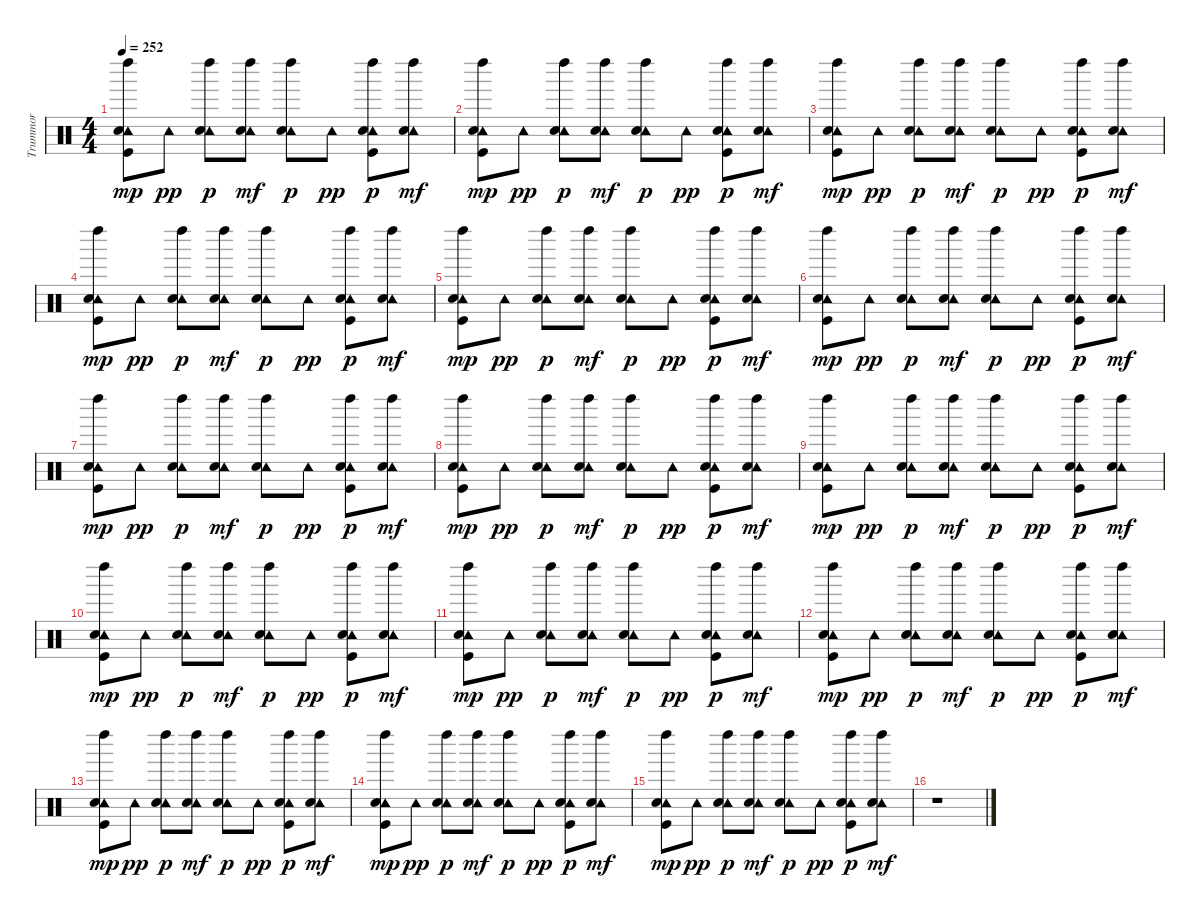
\track ("Trummor" "Trummor") {instrument percussion}
\staff {score}
\articulation defaults
\ts (4 4)
\tempo 252
\clef neutral
\ks c
("Left Maraca (hit)" "Tambourine (hit)" "Snare (hit) 2" "Kick (hit)").8{dy mp} "Tambourine (hit)".8{dy pp} ("Left Maraca (hit)" "Tambourine (hit)" "Snare (hit) 2").8{dy p} ("Left Maraca (hit)" "Tambourine (hit)" "Snare (hit) 2").8{dy mf} ("Left Maraca (hit)" "Tambourine (hit)" "Snare (hit) 2").8{dy p} "Tambourine (hit)".8{dy pp} ("Left Maraca (hit)" "Tambourine (hit)" "Snare (hit) 2" "Kick (hit)").8{dy p} ("Left Maraca (hit)" "Tambourine (hit)" "Snare (hit) 2").8{dy mf} |
("Left Maraca (hit)" "Tambourine (hit)" "Snare (hit) 2" "Kick (hit)").8{dy mp volume 7} "Tambourine (hit)".8{dy pp} ("Left Maraca (hit)" "Tambourine (hit)" "Snare (hit) 2").8{dy p} ("Left Maraca (hit)" "Tambourine (hit)" "Snare (hit) 2").8{dy mf} ("Left Maraca (hit)" "Tambourine (hit)" "Snare (hit) 2").8{dy p} "Tambourine (hit)".8{dy pp} ("Left Maraca (hit)" "Tambourine (hit)" "Snare (hit) 2" "Kick (hit)").8{dy p} ("Left Maraca (hit)" "Tambourine (hit)" "Snare (hit) 2").8{dy mf} |
("Left Maraca (hit)" "Tambourine (hit)" "Snare (hit) 2" "Kick (hit)").8{dy mp} "Tambourine (hit)".8{dy pp} ("Left Maraca (hit)" "Tambourine (hit)" "Snare (hit) 2").8{dy p} ("Left Maraca (hit)" "Tambourine (hit)" "Snare (hit) 2").8{dy mf} ("Left Maraca (hit)" "Tambourine (hit)" "Snare (hit) 2").8{dy p} "Tambourine (hit)".8{dy pp} ("Left Maraca (hit)" "Tambourine (hit)" "Snare (hit) 2" "Kick (hit)").8{dy p} ("Left Maraca (hit)" "Tambourine (hit)" "Snare (hit) 2").8{dy mf} |
("Left Maraca (hit)" "Tambourine (hit)" "Snare (hit) 2" "Kick (hit)").8{dy mp} "Tambourine (hit)".8{dy pp} ("Left Maraca (hit)" "Tambourine (hit)" "Snare (hit) 2").8{dy p} ("Left Maraca (hit)" "Tambourine (hit)" "Snare (hit) 2").8{dy mf} ("Left Maraca (hit)" "Tambourine (hit)" "Snare (hit) 2").8{dy p} "Tambourine (hit)".8{dy pp} ("Left Maraca (hit)" "Tambourine (hit)" "Snare (hit) 2" "Kick (hit)").8{dy p} ("Left Maraca (hit)" "Tambourine (hit)" "Snare (hit) 2").8{dy mf} |
("Left Maraca (hit)" "Tambourine (hit)" "Snare (hit) 2" "Kick (hit)").8{dy mp} "Tambourine (hit)".8{dy pp} ("Left Maraca (hit)" "Tambourine (hit)" "Snare (hit) 2").8{dy p} ("Left Maraca (hit)" "Tambourine (hit)" "Snare (hit) 2").8{dy mf} ("Left Maraca (hit)" "Tambourine (hit)" "Snare (hit) 2").8{dy p} "Tambourine (hit)".8{dy pp} ("Left Maraca (hit)" "Tambourine (hit)" "Snare (hit) 2" "Kick (hit)").8{dy p} ("Left Maraca (hit)" "Tambourine (hit)" "Snare (hit) 2").8{dy mf} |
("Left Maraca (hit)" "Tambourine (hit)" "Snare (hit) 2" "Kick (hit)").8{dy mp volume 3} "Tambourine (hit)".8{dy pp} ("Left Maraca (hit)" "Tambourine (hit)" "Snare (hit) 2").8{dy p} ("Left Maraca (hit)" "Tambourine (hit)" "Snare (hit) 2").8{dy mf} ("Left Maraca (hit)" "Tambourine (hit)" "Snare (hit) 2").8{dy p} "Tambourine (hit)".8{dy pp} ("Left Maraca (hit)" "Tambourine (hit)" "Snare (hit) 2" "Kick (hit)").8{dy p} ("Left Maraca (hit)" "Tambourine (hit)" "Snare (hit) 2").8{dy mf} |
("Left Maraca (hit)" "Tambourine (hit)" "Snare (hit) 2" "Kick (hit)").8{dy mp} "Tambourine (hit)".8{dy pp} ("Left Maraca (hit)" "Tambourine (hit)" "Snare (hit) 2").8{dy p} ("Left Maraca (hit)" "Tambourine (hit)" "Snare (hit) 2").8{dy mf} ("Left Maraca (hit)" "Tambourine (hit)" "Snare (hit) 2").8{dy p} "Tambourine (hit)".8{dy pp} ("Left Maraca (hit)" "Tambourine (hit)" "Snare (hit) 2" "Kick (hit)").8{dy p} ("Left Maraca (hit)" "Tambourine (hit)" "Snare (hit) 2").8{dy mf} |
("Left Maraca (hit)" "Tambourine (hit)" "Snare (hit) 2" "Kick (hit)").8{dy mp} "Tambourine (hit)".8{dy pp} ("Left Maraca (hit)" "Tambourine (hit)" "Snare (hit) 2").8{dy p} ("Left Maraca (hit)" "Tambourine (hit)" "Snare (hit) 2").8{dy mf} ("Left Maraca (hit)" "Tambourine (hit)" "Snare (hit) 2").8{dy p} "Tambourine (hit)".8{dy pp} ("Left Maraca (hit)" "Tambourine (hit)" "Snare (hit) 2" "Kick (hit)").8{dy p} ("Left Maraca (hit)" "Tambourine (hit)" "Snare (hit) 2").8{dy mf} |
("Left Maraca (hit)" "Tambourine (hit)" "Snare (hit) 2" "Kick (hit)").8{dy mp} "Tambourine (hit)".8{dy pp} ("Left Maraca (hit)" "Tambourine (hit)" "Snare (hit) 2").8{dy p} ("Left Maraca (hit)" "Tambourine (hit)" "Snare (hit) 2").8{dy mf} ("Left Maraca (hit)" "Tambourine (hit)" "Snare (hit) 2").8{dy p} "Tambourine (hit)".8{dy pp} ("Left Maraca (hit)" "Tambourine (hit)" "Snare (hit) 2" "Kick (hit)").8{dy p} ("Left Maraca (hit)" "Tambourine (hit)" "Snare (hit) 2").8{dy mf} |
("Left Maraca (hit)" "Tambourine (hit)" "Snare (hit) 2" "Kick (hit)").8{dy mp volume 0} "Tambourine (hit)".8{dy pp} ("Left Maraca (hit)" "Tambourine (hit)" "Snare (hit) 2").8{dy p} ("Left Maraca (hit)" "Tambourine (hit)" "Snare (hit) 2").8{dy mf} ("Left Maraca (hit)" "Tambourine (hit)" "Snare (hit) 2").8{dy p} "Tambourine (hit)".8{dy pp} ("Left Maraca (hit)" "Tambourine (hit)" "Snare (hit) 2" "Kick (hit)").8{dy p} ("Left Maraca (hit)" "Tambourine (hit)" "Snare (hit) 2").8{dy mf} |
("Left Maraca (hit)" "Tambourine (hit)" "Snare (hit) 2" "Kick (hit)").8{dy mp} "Tambourine (hit)".8{dy pp} ("Left Maraca (hit)" "Tambourine (hit)" "Snare (hit) 2").8{dy p} ("Left Maraca (hit)" "Tambourine (hit)" "Snare (hit) 2").8{dy mf} ("Left Maraca (hit)" "Tambourine (hit)" "Snare (hit) 2").8{dy p} "Tambourine (hit)".8{dy pp} ("Left Maraca (hit)" "Tambourine (hit)" "Snare (hit) 2" "Kick (hit)").8{dy p} ("Left Maraca (hit)" "Tambourine (hit)" "Snare (hit) 2").8{dy mf} |
("Left Maraca (hit)" "Tambourine (hit)" "Snare (hit) 2" "Kick (hit)").8{dy mp} "Tambourine (hit)".8{dy pp} ("Left Maraca (hit)" "Tambourine (hit)" "Snare (hit) 2").8{dy p} ("Left Maraca (hit)" "Tambourine (hit)" "Snare (hit) 2").8{dy mf} ("Left Maraca (hit)" "Tambourine (hit)" "Snare (hit) 2").8{dy p} "Tambourine (hit)".8{dy pp} ("Left Maraca (hit)" "Tambourine (hit)" "Snare (hit) 2" "Kick (hit)").8{dy p} ("Left Maraca (hit)" "Tambourine (hit)" "Snare (hit) 2").8{dy mf} |
("Left Maraca (hit)" "Tambourine (hit)" "Snare (hit) 2" "Kick (hit)").8{dy mp} "Tambourine (hit)".8{dy pp} ("Left Maraca (hit)" "Tambourine (hit)" "Snare (hit) 2").8{dy p} ("Left Maraca (hit)" "Tambourine (hit)" "Snare (hit) 2").8{dy mf} ("Left Maraca (hit)" "Tambourine (hit)" "Snare (hit) 2").8{dy p} "Tambourine (hit)".8{dy pp} ("Left Maraca (hit)" "Tambourine (hit)" "Snare (hit) 2" "Kick (hit)").8{dy p} ("Left Maraca (hit)" "Tambourine (hit)" "Snare (hit) 2").8{dy mf} |
("Left Maraca (hit)" "Tambourine (hit)" "Snare (hit) 2" "Kick (hit)").8{dy mp} "Tambourine (hit)".8{dy pp} ("Left Maraca (hit)" "Tambourine (hit)" "Snare (hit) 2").8{dy p} ("Left Maraca (hit)" "Tambourine (hit)" "Snare (hit) 2").8{dy mf} ("Left Maraca (hit)" "Tambourine (hit)" "Snare (hit) 2").8{dy p} "Tambourine (hit)".8{dy pp} ("Left Maraca (hit)" "Tambourine (hit)" "Snare (hit) 2" "Kick (hit)").8{dy p} ("Left Maraca (hit)" "Tambourine (hit)" "Snare (hit) 2").8{dy mf} |
("Left Maraca (hit)" "Tambourine (hit)" "Snare (hit) 2" "Kick (hit)").8{dy mp} "Tambourine (hit)".8{dy pp} ("Left Maraca (hit)" "Tambourine (hit)" "Snare (hit) 2").8{dy p} ("Left Maraca (hit)" "Tambourine (hit)" "Snare (hit) 2").8{dy mf} ("Left Maraca (hit)" "Tambourine (hit)" "Snare (hit) 2").8{dy p} "Tambourine (hit)".8{dy pp} ("Left Maraca (hit)" "Tambourine (hit)" "Snare (hit) 2" "Kick (hit)").8{dy p} ("Left Maraca (hit)" "Tambourine (hit)" "Snare (hit) 2").8{dy mf} |
r.1
